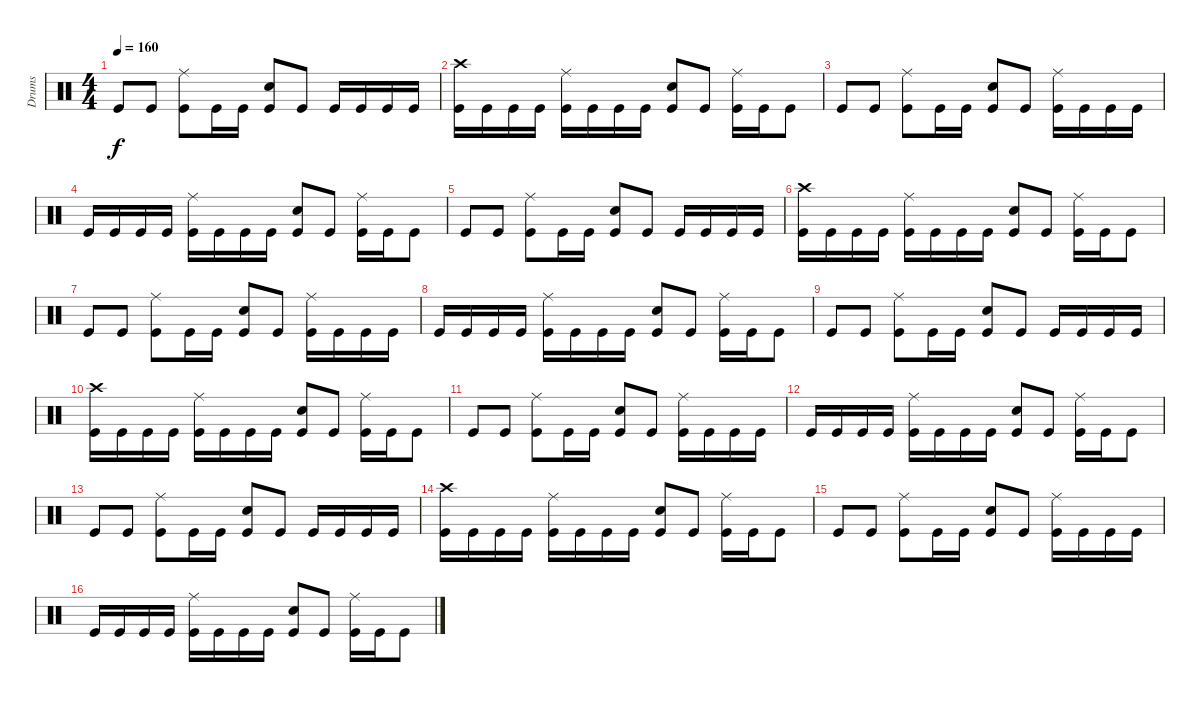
\track ("Drums" "Drums") {instrument percussion}
\staff {score}
\articulation defaults
\ts (4 4)
\tempo 160
\clef neutral
\ks c "Kick (hit)".8{dy f} "Kick (hit)".8
("Ride (middle)" "Kick (hit)").8 "Kick (hit)".16 "Kick (hit)".16 ("Electric Snare (hit)" "Kick (hit)").8 "Kick (hit)".8 "Kick (hit)".16 "Kick (hit)".16 "Kick (hit)".16 "Kick (hit)".16 |
("Crash high (hit)" "Kick (hit)").16 "Kick (hit)".16 "Kick (hit)".16 "Kick (hit)".16 ("Ride (middle)" "Kick (hit)").16 "Kick (hit)".16 "Kick (hit)".16 "Kick (hit)".16 ("Electric Snare (hit)" "Kick (hit)").8 "Kick (hit)".8 ("Ride (middle)" "Kick (hit)").16 "Kick (hit)".16 "Kick (hit)".8 |
"Kick (hit)".8 "Kick (hit)".8 ("Ride (middle)" "Kick (hit)").8 "Kick (hit)".16 "Kick (hit)".16 ("Electric Snare (hit)" "Kick (hit)").8 "Kick (hit)".8 ("Ride (middle)" "Kick (hit)").16 "Kick (hit)".16 "Kick (hit)".16 "Kick (hit)".16 |
"Kick (hit)".16 "Kick (hit)".16 "Kick (hit)".16 "Kick (hit)".16 ("Ride (middle)" "Kick (hit)").16 "Kick (hit)".16 "Kick (hit)".16 "Kick (hit)".16 ("Electric Snare (hit)" "Kick (hit)").8 "Kick (hit)".8 ("Ride (middle)" "Kick (hit)").16 "Kick (hit)".16 "Kick (hit)".8 |
"Kick (hit)".8 "Kick (hit)".8 ("Ride (middle)" "Kick (hit)").8 "Kick (hit)".16 "Kick (hit)".16 ("Electric Snare (hit)" "Kick (hit)").8 "Kick (hit)".8 "Kick (hit)".16 "Kick (hit)".16 "Kick (hit)".16 "Kick (hit)".16 |
("Crash high (hit)" "Kick (hit)").16 "Kick (hit)".16 "Kick (hit)".16 "Kick (hit)".16 ("Ride (middle)" "Kick (hit)").16 "Kick (hit)".16 "Kick (hit)".16 "Kick (hit)".16 ("Electric Snare (hit)" "Kick (hit)").8 "Kick (hit)".8 ("Ride (middle)" "Kick (hit)").16 "Kick (hit)".16 "Kick (hit)".8 |
"Kick (hit)".8 "Kick (hit)".8 ("Ride (middle)" "Kick (hit)").8 "Kick (hit)".16 "Kick (hit)".16 ("Electric Snare (hit)" "Kick (hit)").8 "Kick (hit)".8 ("Ride (middle)" "Kick (hit)").16 "Kick (hit)".16 "Kick (hit)".16 "Kick (hit)".16 |
"Kick (hit)".16 "Kick (hit)".16 "Kick (hit)".16 "Kick (hit)".16 ("Ride (middle)" "Kick (hit)").16 "Kick (hit)".16 "Kick (hit)".16 "Kick (hit)".16 ("Electric Snare (hit)" "Kick (hit)").8 "Kick (hit)".8 ("Ride (middle)" "Kick (hit)").16 "Kick (hit)".16 "Kick (hit)".8 |
"Kick (hit)".8 "Kick (hit)".8 ("Ride (middle)" "Kick (hit)").8 "Kick (hit)".16 "Kick (hit)".16 ("Electric Snare (hit)" "Kick (hit)").8 "Kick (hit)".8 "Kick (hit)".16 "Kick (hit)".16 "Kick (hit)".16 "Kick (hit)".16 |
("Crash high (hit)" "Kick (hit)").16 "Kick (hit)".16 "Kick (hit)".16 "Kick (hit)".16 ("Ride (middle)" "Kick (hit)").16 "Kick (hit)".16 "Kick (hit)".16 "Kick (hit)".16 ("Electric Snare (hit)" "Kick (hit)").8 "Kick (hit)".8 ("Ride (middle)" "Kick (hit)").16 "Kick (hit)".16 "Kick (hit)".8 |
"Kick (hit)".8 "Kick (hit)".8 ("Ride (middle)" "Kick (hit)").8 "Kick (hit)".16 "Kick (hit)".16 ("Electric Snare (hit)" "Kick (hit)").8 "Kick (hit)".8 ("Ride (middle)" "Kick (hit)").16 "Kick (hit)".16 "Kick (hit)".16 "Kick (hit)".16 |
"Kick (hit)".16 "Kick (hit)".16 "Kick (hit)".16 "Kick (hit)".16 ("Ride (middle)" "Kick (hit)").16 "Kick (hit)".16 "Kick (hit)".16 "Kick (hit)".16 ("Electric Snare (hit)" "Kick (hit)").8 "Kick (hit)".8 ("Ride (middle)" "Kick (hit)").16 "Kick (hit)".16 "Kick (hit)".8 |
"Kick (hit)".8 "Kick (hit)".8 ("Ride (middle)" "Kick (hit)").8 "Kick (hit)".16 "Kick (hit)".16 ("Electric Snare (hit)" "Kick (hit)").8 "Kick (hit)".8 "Kick (hit)".16 "Kick (hit)".16 "Kick (hit)".16 "Kick (hit)".16 |
("Crash high (hit)" "Kick (hit)").16 "Kick (hit)".16 "Kick (hit)".16 "Kick (hit)".16 ("Ride (middle)" "Kick (hit)").16 "Kick (hit)".16 "Kick (hit)".16 "Kick (hit)".16 ("Electric Snare (hit)" "Kick (hit)").8 "Kick (hit)".8 ("Ride (middle)" "Kick (hit)").16 "Kick (hit)".16 "Kick (hit)".8 |
"Kick (hit)".8 "Kick (hit)".8 ("Ride (middle)" "Kick (hit)").8 "Kick (hit)".16 "Kick (hit)".16 ("Electric Snare (hit)" "Kick (hit)").8 "Kick (hit)".8 ("Ride (middle)" "Kick (hit)").16 "Kick (hit)".16 "Kick (hit)".16 "Kick (hit)".16 |
"Kick (hit)".16 "Kick (hit)".16 "Kick (hit)".16 "Kick (hit)".16 ("Ride (middle)" "Kick (hit)").16 "Kick (hit)".16 "Kick (hit)".16 "Kick (hit)".16 ("Electric Snare (hit)" "Kick (hit)").8 "Kick (hit)".8 ("Ride (middle)" "Kick (hit)").16 "Kick (hit)".16 "Kick (hit)".8
